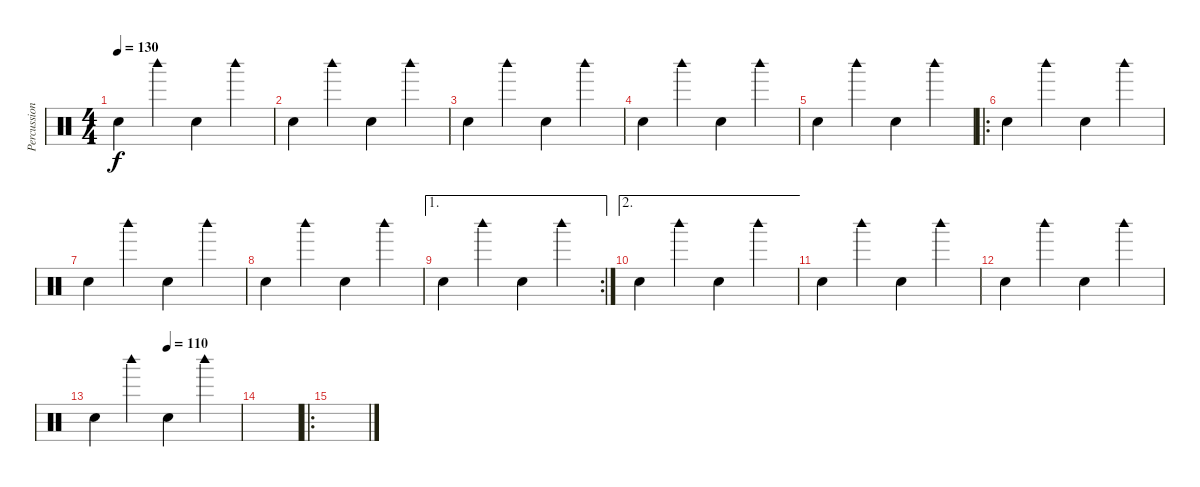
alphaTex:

\track ("Percussions" "Percussion") {instrument percussion}
\staff {score}
\articulation defaults
\ts (4 4)
\tempo 130
\clef neutral
\ks c "Hand Clap (hit)".4{dy f} "Woodblock high (hit)".4 "Hand Clap (hit)".4 "Woodblock high (hit)".4
|
"Hand Clap (hit)".4 "Woodblock high (hit)".4 "Hand Clap (hit)".4 "Woodblock high (hit)".4 |
"Hand Clap (hit)".4 "Woodblock high (hit)".4 "Hand Clap (hit)".4 "Woodblock high (hit)".4 |
"Hand Clap (hit)".4 "Woodblock high (hit)".4 "Hand Clap (hit)".4 "Woodblock high (hit)".4 |
"Hand Clap (hit)".4 "Woodblock high (hit)".4 "Hand Clap (hit)".4 "Woodblock high (hit)".4 |
\ro "Hand Clap (hit)".4 "Woodblock high (hit)".4 "Hand Clap (hit)".4 "Woodblock high (hit)".4
|
"Hand Clap (hit)".4 "Woodblock high (hit)".4 "Hand Clap (hit)".4 "Woodblock high (hit)".4 |
"Hand Clap (hit)".4 "Woodblock high (hit)".4 "Hand Clap (hit)".4 "Woodblock high (hit)".4 |
\ae 1
\rc 2 "Hand Clap (hit)".4 "Woodblock high (hit)".4 "Hand Clap (hit)".4 "Woodblock high (hit)".4
|
\ae 2 "Hand Clap (hit)".4 "Woodblock high (hit)".4 "Hand Clap (hit)".4 "Woodblock high (hit)".4
|
"Hand Clap (hit)".4 "Woodblock high (hit)".4 "Hand Clap (hit)".4 "Woodblock high (hit)".4 |
"Hand Clap (hit)".4 "Woodblock high (hit)".4 "Hand Clap (hit)".4 "Woodblock high (hit)".4 |
\tempo (110 0.5)
"Hand Clap (hit)".4 "Woodblock high (hit)".4 "Hand Clap (hit)".4 "Woodblock high (hit)".4 |
|
\ro
